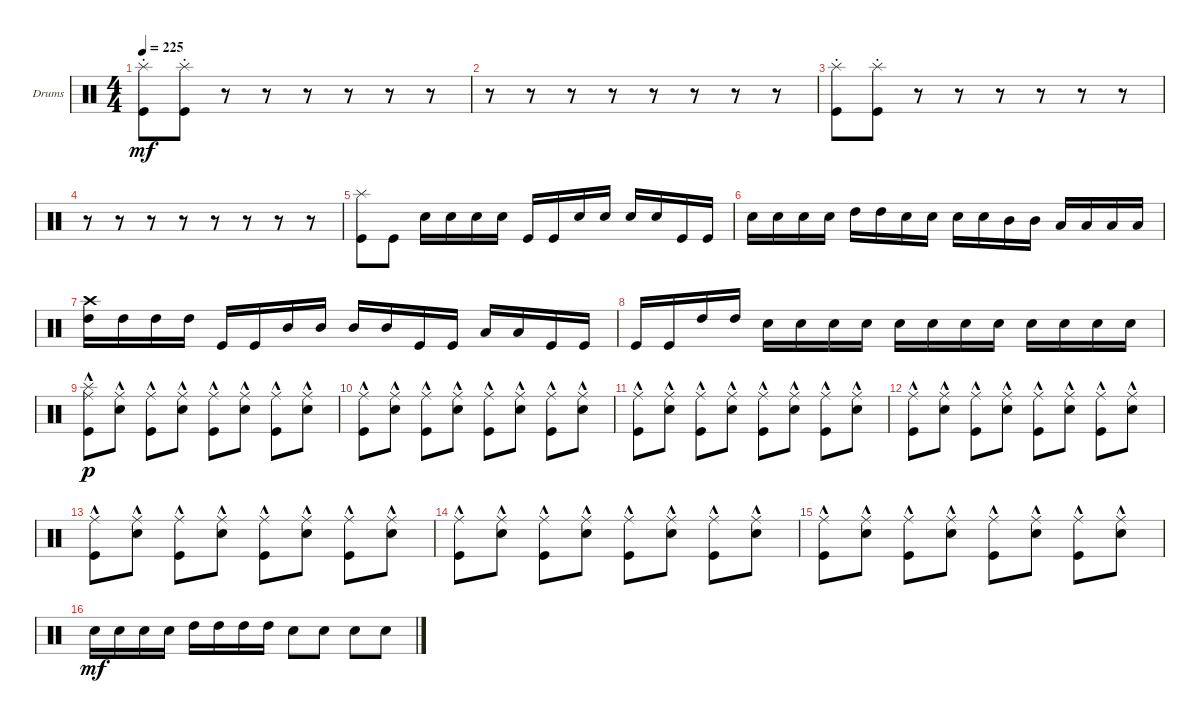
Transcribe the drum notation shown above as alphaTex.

\bracketExtendMode groupsimilarinstruments
\firstSystemTrackNameOrientation horizontal
\otherSystemsTrackNameOrientation horizontal
\track ("Drumkit" "Drums") {instrument percussion}
\staff {score}
\articulation defaults
\ts (4 4)
\tempo 225
\clef neutral
\ks c
("Kick (hit)" "Splash (hit)"{st}).8{dy mf} ("Kick (hit)" "Splash (hit)"{st}).8 r.8 r.8 r.8 r.8 r.8 r.8 |
r.8 r.8 r.8 r.8 r.8 r.8 r.8 r.8 |
("Kick (hit)" "Splash (hit)"{st}).8 ("Kick (hit)" "Splash (hit)"{st}).8 r.8 r.8 r.8 r.8 r.8 r.8 |
r.8 r.8 r.8 r.8 r.8 r.8 r.8 r.8 |
("Kick (hit)" "Splash (hit)").8 "Kick (hit)".8 "Snare (hit) 2".16 "Snare (hit) 2".16 "Snare (hit) 2".16 "Snare (hit) 2".16 "Kick (hit)".16 "Kick (hit)".16 "Snare (hit) 2".16 "Snare (hit) 2".16 "Snare (hit) 2".16 "Snare (hit) 2".16 "Kick (hit)".16 "Kick (hit)".16 |
"Snare (hit) 2".16 "Snare (hit) 2".16 "Snare (hit) 2".16 "Snare (hit) 2".16 "High Tom (hit)".16 "High Tom (hit)".16 "Snare (hit) 2".16 "Snare (hit) 2".16 "Snare (hit) 2".16 "Snare (hit) 2".16 "Mid Tom (hit)".16 "Mid Tom (hit)".16 "Low Tom (hit)".16 "Low Tom (hit)".16 "Low Tom (hit)".16 "Low Tom (hit)".16 |
("High Tom (hit)" "Crash high (hit)").16 "High Tom (hit)".16 "High Tom (hit)".16 "High Tom (hit)".16 "Kick (hit)".16 "Kick (hit)".16 "Mid Tom (hit)".16 "Mid Tom (hit)".16 "Mid Tom (hit)".16 "Mid Tom (hit)".16 "Kick (hit)".16 "Kick (hit)".16 "Low Tom (hit)".16 "Low Tom (hit)".16 "Kick (hit)".16 "Kick (hit)".16 |
"Kick (hit)".16 "Kick (hit)".16 "High Tom (hit)".16 "High Tom (hit)".16 "Snare (hit) 2".16 "Snare (hit) 2".16 "Snare (hit) 2".16 "Snare (hit) 2".16 "Snare (hit) 2".16 "Snare (hit) 2".16 "Snare (hit) 2".16 "Snare (hit) 2".16 "Snare (hit) 2".16 "Snare (hit) 2".16 "Snare (hit) 2".16 "Snare (hit) 2".16 |
("Kick (hit)"{hac} "Ride (middle)" "Splash (hit)").8{dy p} ("Snare (hit) 2"{hac} "Ride (middle)").8 ("Kick (hit)"{hac} "Ride (middle)").8 ("Snare (hit) 2"{hac} "Ride (middle)").8 ("Kick (hit)"{hac} "Ride (middle)").8 ("Snare (hit) 2"{hac} "Ride (middle)").8 ("Kick (hit)"{hac} "Ride (middle)").8 ("Snare (hit) 2"{hac} "Ride (middle)").8 |
("Kick (hit)"{hac} "Ride (middle)").8 ("Snare (hit) 2"{hac} "Ride (middle)").8 ("Kick (hit)"{hac} "Ride (middle)").8 ("Snare (hit) 2"{hac} "Ride (middle)").8 ("Kick (hit)"{hac} "Ride (middle)").8 ("Snare (hit) 2"{hac} "Ride (middle)").8 ("Kick (hit)"{hac} "Ride (middle)").8 ("Snare (hit) 2"{hac} "Ride (middle)").8 |
("Kick (hit)"{hac} "Ride (middle)").8 ("Snare (hit) 2"{hac} "Ride (middle)").8 ("Kick (hit)"{hac} "Ride (middle)").8 ("Snare (hit) 2"{hac} "Ride (middle)").8 ("Kick (hit)"{hac} "Ride (middle)").8 ("Snare (hit) 2"{hac} "Ride (middle)").8 ("Kick (hit)"{hac} "Ride (middle)").8 ("Snare (hit) 2"{hac} "Ride (middle)").8 |
("Kick (hit)"{hac} "Ride (middle)").8 ("Snare (hit) 2"{hac} "Ride (middle)").8 ("Kick (hit)"{hac} "Ride (middle)").8 ("Snare (hit) 2"{hac} "Ride (middle)").8 ("Kick (hit)"{hac} "Ride (middle)").8 ("Snare (hit) 2"{hac} "Ride (middle)").8 ("Kick (hit)"{hac} "Ride (middle)").8 ("Snare (hit) 2"{hac} "Ride (middle)").8 |
("Kick (hit)"{hac} "Ride (middle)").8 ("Snare (hit) 2"{hac} "Ride (middle)").8 ("Kick (hit)"{hac} "Ride (middle)").8 ("Snare (hit) 2"{hac} "Ride (middle)").8 ("Kick (hit)"{hac} "Ride (middle)").8 ("Snare (hit) 2"{hac} "Ride (middle)").8 ("Kick (hit)"{hac} "Ride (middle)").8 ("Snare (hit) 2"{hac} "Ride (middle)").8 |
("Kick (hit)"{hac} "Ride (middle)").8 ("Snare (hit) 2"{hac} "Ride (middle)").8 ("Kick (hit)"{hac} "Ride (middle)").8 ("Snare (hit) 2"{hac} "Ride (middle)").8 ("Kick (hit)"{hac} "Ride (middle)").8 ("Snare (hit) 2"{hac} "Ride (middle)").8 ("Kick (hit)"{hac} "Ride (middle)").8 ("Snare (hit) 2"{hac} "Ride (middle)").8 |
("Kick (hit)"{hac} "Ride (middle)").8 ("Snare (hit) 2"{hac} "Ride (middle)").8 ("Kick (hit)"{hac} "Ride (middle)").8 ("Snare (hit) 2"{hac} "Ride (middle)").8 ("Kick (hit)"{hac} "Ride (middle)").8 ("Snare (hit) 2"{hac} "Ride (middle)").8 ("Kick (hit)"{hac} "Ride (middle)").8 ("Snare (hit) 2"{hac} "Ride (middle)").8 |
"Snare (hit) 2".16{dy mf} "Snare (hit) 2".16 "Snare (hit) 2".16 "Snare (hit) 2".16 "High Tom (hit)".16 "High Tom (hit)".16 "High Tom (hit)".16 "High Tom (hit)".16 "Snare (hit) 2".8 "Snare (hit) 2".8 "Snare (hit) 2".8 "Snare (hit) 2".8
